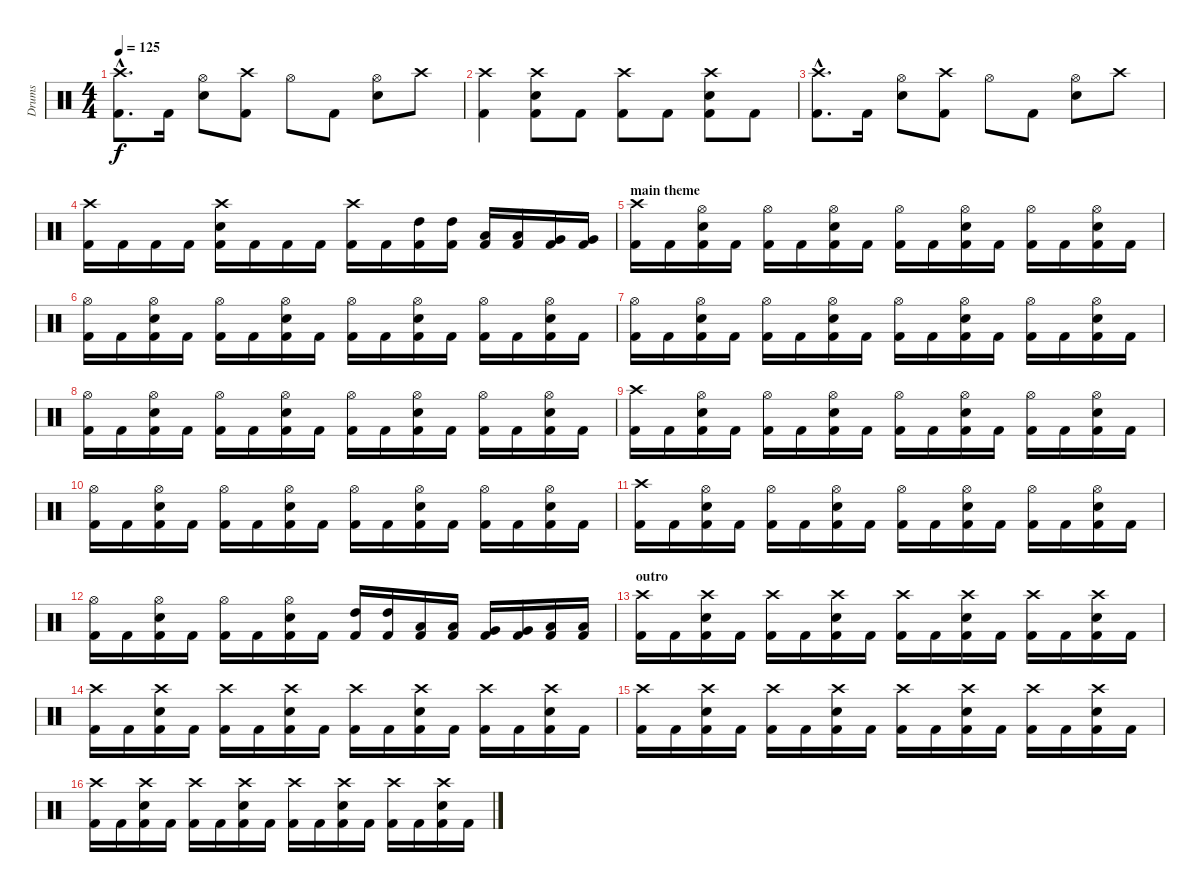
\track ("Drums" "Drums") {instrument percussion}
\staff {score}
\articulation defaults
\ts (4 4)
\tempo 125
\clef neutral
\ks c
("Crash high (hit)"{hac} "Kick (hit) 2"{hac}).8{d dy f} "Kick (hit) 2".16 ("Hi-Hat (open)" "Electric Snare (hit)").8 ("Crash high (hit)" "Kick (hit) 2").8 "Hi-Hat (open)".8 "Kick (hit) 2".8 ("Hi-Hat (open)" "Electric Snare (hit)").8 "Crash high (hit)".8 |
("Crash high (hit)" "Kick (hit) 2").4 ("Crash high (hit)" "Electric Snare (hit)" "Kick (hit) 2").8 "Kick (hit) 2".8 ("Crash high (hit)" "Kick (hit) 2").8 "Kick (hit) 2".8 ("Crash high (hit)" "Electric Snare (hit)" "Kick (hit) 2").8 "Kick (hit) 2".8 |
("Crash high (hit)"{hac} "Kick (hit) 2"{hac}).8{d} "Kick (hit) 2".16 ("Hi-Hat (open)" "Electric Snare (hit)").8 ("Crash high (hit)" "Kick (hit) 2").8 "Hi-Hat (open)".8 "Kick (hit) 2".8 ("Hi-Hat (open)" "Electric Snare (hit)").8 "Crash high (hit)".8 |
("Crash high (hit)" "Kick (hit) 2").16 "Kick (hit) 2".16 "Kick (hit) 2".16 "Kick (hit) 2".16 ("Crash high (hit)" "Electric Snare (hit)" "Kick (hit) 2").16 "Kick (hit) 2".16 "Kick (hit) 2".16 "Kick (hit) 2".16 ("Crash high (hit)" "Kick (hit) 2").16 "Kick (hit) 2".16 ("High Tom (hit)" "Kick (hit) 2").16 ("High Tom (hit)" "Kick (hit) 2").16 ("Low Tom (hit)" "Kick (hit) 2").16 ("Low Tom (hit)" "Kick (hit) 2").16 ("Very Low Tom (hit)" "Kick (hit) 2").16 ("Very Low Tom (hit)" "Kick (hit) 2").16 |
\section ("" "main theme")
("Crash high (hit)" "Kick (hit) 2").16 "Kick (hit) 2".16 ("Hi-Hat (open)" "Electric Snare (hit)" "Kick (hit) 2").16 "Kick (hit) 2".16 ("Hi-Hat (open)" "Kick (hit) 2").16 "Kick (hit) 2".16 ("Hi-Hat (open)" "Electric Snare (hit)" "Kick (hit) 2").16 "Kick (hit) 2".16 ("Hi-Hat (open)" "Kick (hit) 2").16 "Kick (hit) 2".16 ("Hi-Hat (open)" "Electric Snare (hit)" "Kick (hit) 2").16 "Kick (hit) 2".16 ("Hi-Hat (open)" "Kick (hit) 2").16 "Kick (hit) 2".16 ("Hi-Hat (open)" "Electric Snare (hit)" "Kick (hit) 2").16 "Kick (hit) 2".16 |
("Hi-Hat (open)" "Kick (hit) 2").16 "Kick (hit) 2".16 ("Hi-Hat (open)" "Electric Snare (hit)" "Kick (hit) 2").16 "Kick (hit) 2".16 ("Hi-Hat (open)" "Kick (hit) 2").16 "Kick (hit) 2".16 ("Hi-Hat (open)" "Electric Snare (hit)" "Kick (hit) 2").16 "Kick (hit) 2".16 ("Hi-Hat (open)" "Kick (hit) 2").16 "Kick (hit) 2".16 ("Hi-Hat (open)" "Electric Snare (hit)" "Kick (hit) 2").16 "Kick (hit) 2".16 ("Hi-Hat (open)" "Kick (hit) 2").16 "Kick (hit) 2".16 ("Hi-Hat (open)" "Electric Snare (hit)" "Kick (hit) 2").16 "Kick (hit) 2".16 |
("Hi-Hat (open)" "Kick (hit) 2").16 "Kick (hit) 2".16 ("Hi-Hat (open)" "Electric Snare (hit)" "Kick (hit) 2").16 "Kick (hit) 2".16 ("Hi-Hat (open)" "Kick (hit) 2").16 "Kick (hit) 2".16 ("Hi-Hat (open)" "Electric Snare (hit)" "Kick (hit) 2").16 "Kick (hit) 2".16 ("Hi-Hat (open)" "Kick (hit) 2").16 "Kick (hit) 2".16 ("Hi-Hat (open)" "Electric Snare (hit)" "Kick (hit) 2").16 "Kick (hit) 2".16 ("Hi-Hat (open)" "Kick (hit) 2").16 "Kick (hit) 2".16 ("Hi-Hat (open)" "Electric Snare (hit)" "Kick (hit) 2").16 "Kick (hit) 2".16 |
("Hi-Hat (open)" "Kick (hit) 2").16 "Kick (hit) 2".16 ("Hi-Hat (open)" "Electric Snare (hit)" "Kick (hit) 2").16 "Kick (hit) 2".16 ("Hi-Hat (open)" "Kick (hit) 2").16 "Kick (hit) 2".16 ("Hi-Hat (open)" "Electric Snare (hit)" "Kick (hit) 2").16 "Kick (hit) 2".16 ("Hi-Hat (open)" "Kick (hit) 2").16 "Kick (hit) 2".16 ("Hi-Hat (open)" "Electric Snare (hit)" "Kick (hit) 2").16 "Kick (hit) 2".16 ("Hi-Hat (open)" "Kick (hit) 2").16 "Kick (hit) 2".16 ("Hi-Hat (open)" "Electric Snare (hit)" "Kick (hit) 2").16 "Kick (hit) 2".16 |
("Crash high (hit)" "Kick (hit) 2").16 "Kick (hit) 2".16 ("Hi-Hat (open)" "Electric Snare (hit)" "Kick (hit) 2").16 "Kick (hit) 2".16 ("Hi-Hat (open)" "Kick (hit) 2").16 "Kick (hit) 2".16 ("Hi-Hat (open)" "Electric Snare (hit)" "Kick (hit) 2").16 "Kick (hit) 2".16 ("Hi-Hat (open)" "Kick (hit) 2").16 "Kick (hit) 2".16 ("Hi-Hat (open)" "Electric Snare (hit)" "Kick (hit) 2").16 "Kick (hit) 2".16 ("Hi-Hat (open)" "Kick (hit) 2").16 "Kick (hit) 2".16 ("Hi-Hat (open)" "Electric Snare (hit)" "Kick (hit) 2").16 "Kick (hit) 2".16 |
("Hi-Hat (open)" "Kick (hit) 2").16 "Kick (hit) 2".16 ("Hi-Hat (open)" "Electric Snare (hit)" "Kick (hit) 2").16 "Kick (hit) 2".16 ("Hi-Hat (open)" "Kick (hit) 2").16 "Kick (hit) 2".16 ("Hi-Hat (open)" "Electric Snare (hit)" "Kick (hit) 2").16 "Kick (hit) 2".16 ("Hi-Hat (open)" "Kick (hit) 2").16 "Kick (hit) 2".16 ("Hi-Hat (open)" "Electric Snare (hit)" "Kick (hit) 2").16 "Kick (hit) 2".16 ("Hi-Hat (open)" "Kick (hit) 2").16 "Kick (hit) 2".16 ("Hi-Hat (open)" "Electric Snare (hit)" "Kick (hit) 2").16 "Kick (hit) 2".16 |
("Crash high (hit)" "Kick (hit) 2").16 "Kick (hit) 2".16 ("Hi-Hat (open)" "Electric Snare (hit)" "Kick (hit) 2").16 "Kick (hit) 2".16 ("Hi-Hat (open)" "Kick (hit) 2").16 "Kick (hit) 2".16 ("Hi-Hat (open)" "Electric Snare (hit)" "Kick (hit) 2").16 "Kick (hit) 2".16 ("Hi-Hat (open)" "Kick (hit) 2").16 "Kick (hit) 2".16 ("Hi-Hat (open)" "Electric Snare (hit)" "Kick (hit) 2").16 "Kick (hit) 2".16 ("Hi-Hat (open)" "Kick (hit) 2").16 "Kick (hit) 2".16 ("Hi-Hat (open)" "Electric Snare (hit)" "Kick (hit) 2").16 "Kick (hit) 2".16 |
("Hi-Hat (open)" "Kick (hit) 2").16 "Kick (hit) 2".16 ("Hi-Hat (open)" "Electric Snare (hit)" "Kick (hit) 2").16 "Kick (hit) 2".16 ("Hi-Hat (open)" "Kick (hit) 2").16 "Kick (hit) 2".16 ("Hi-Hat (open)" "Electric Snare (hit)" "Kick (hit) 2").16 "Kick (hit) 2".16 ("High Tom (hit)" "Kick (hit) 2").16 ("High Tom (hit)" "Kick (hit) 2").16 ("Low Tom (hit)" "Kick (hit) 2").16 ("Low Tom (hit)" "Kick (hit) 2").16 ("Very Low Tom (hit)" "Kick (hit) 2").16 ("Very Low Tom (hit)" "Kick (hit) 2").16 ("Low Floor Tom (hit)" "Kick (hit) 2").16 ("Low Floor Tom (hit)" "Kick (hit) 2").16 |
\section ("" "outro")
("Crash high (hit)" "Kick (hit) 2").16 "Kick (hit) 2".16 ("Crash high (hit)" "Electric Snare (hit)" "Kick (hit) 2").16 "Kick (hit) 2".16 ("Crash high (hit)" "Kick (hit) 2").16 "Kick (hit) 2".16 ("Crash high (hit)" "Electric Snare (hit)" "Kick (hit) 2").16 "Kick (hit) 2".16 ("Crash high (hit)" "Kick (hit) 2").16 "Kick (hit) 2".16 ("Crash high (hit)" "Electric Snare (hit)" "Kick (hit) 2").16 "Kick (hit) 2".16 ("Crash high (hit)" "Kick (hit) 2").16 "Kick (hit) 2".16 ("Crash high (hit)" "Electric Snare (hit)" "Kick (hit) 2").16 "Kick (hit) 2".16 |
("Crash high (hit)" "Kick (hit) 2").16 "Kick (hit) 2".16 ("Crash high (hit)" "Electric Snare (hit)" "Kick (hit) 2").16 "Kick (hit) 2".16 ("Crash high (hit)" "Kick (hit) 2").16 "Kick (hit) 2".16 ("Crash high (hit)" "Electric Snare (hit)" "Kick (hit) 2").16 "Kick (hit) 2".16 ("Crash high (hit)" "Kick (hit) 2").16 "Kick (hit) 2".16 ("Crash high (hit)" "Electric Snare (hit)" "Kick (hit) 2").16 "Kick (hit) 2".16 ("Crash high (hit)" "Kick (hit) 2").16 "Kick (hit) 2".16 ("Crash high (hit)" "Electric Snare (hit)" "Kick (hit) 2").16 "Kick (hit) 2".16 |
("Crash high (hit)" "Kick (hit) 2").16 "Kick (hit) 2".16 ("Crash high (hit)" "Electric Snare (hit)" "Kick (hit) 2").16 "Kick (hit) 2".16 ("Crash high (hit)" "Kick (hit) 2").16 "Kick (hit) 2".16 ("Crash high (hit)" "Electric Snare (hit)" "Kick (hit) 2").16 "Kick (hit) 2".16 ("Crash high (hit)" "Kick (hit) 2").16 "Kick (hit) 2".16 ("Crash high (hit)" "Electric Snare (hit)" "Kick (hit) 2").16 "Kick (hit) 2".16 ("Crash high (hit)" "Kick (hit) 2").16 "Kick (hit) 2".16 ("Crash high (hit)" "Electric Snare (hit)" "Kick (hit) 2").16 "Kick (hit) 2".16 |
("Crash high (hit)" "Kick (hit) 2").16 "Kick (hit) 2".16 ("Crash high (hit)" "Electric Snare (hit)" "Kick (hit) 2").16 "Kick (hit) 2".16 ("Crash high (hit)" "Kick (hit) 2").16 "Kick (hit) 2".16 ("Crash high (hit)" "Electric Snare (hit)" "Kick (hit) 2").16 "Kick (hit) 2".16 ("Crash high (hit)" "Kick (hit) 2").16 "Kick (hit) 2".16 ("Crash high (hit)" "Electric Snare (hit)" "Kick (hit) 2").16 "Kick (hit) 2".16 ("Crash high (hit)" "Kick (hit) 2").16 "Kick (hit) 2".16 ("Crash high (hit)" "Electric Snare (hit)" "Kick (hit) 2").16 "Kick (hit) 2".16
